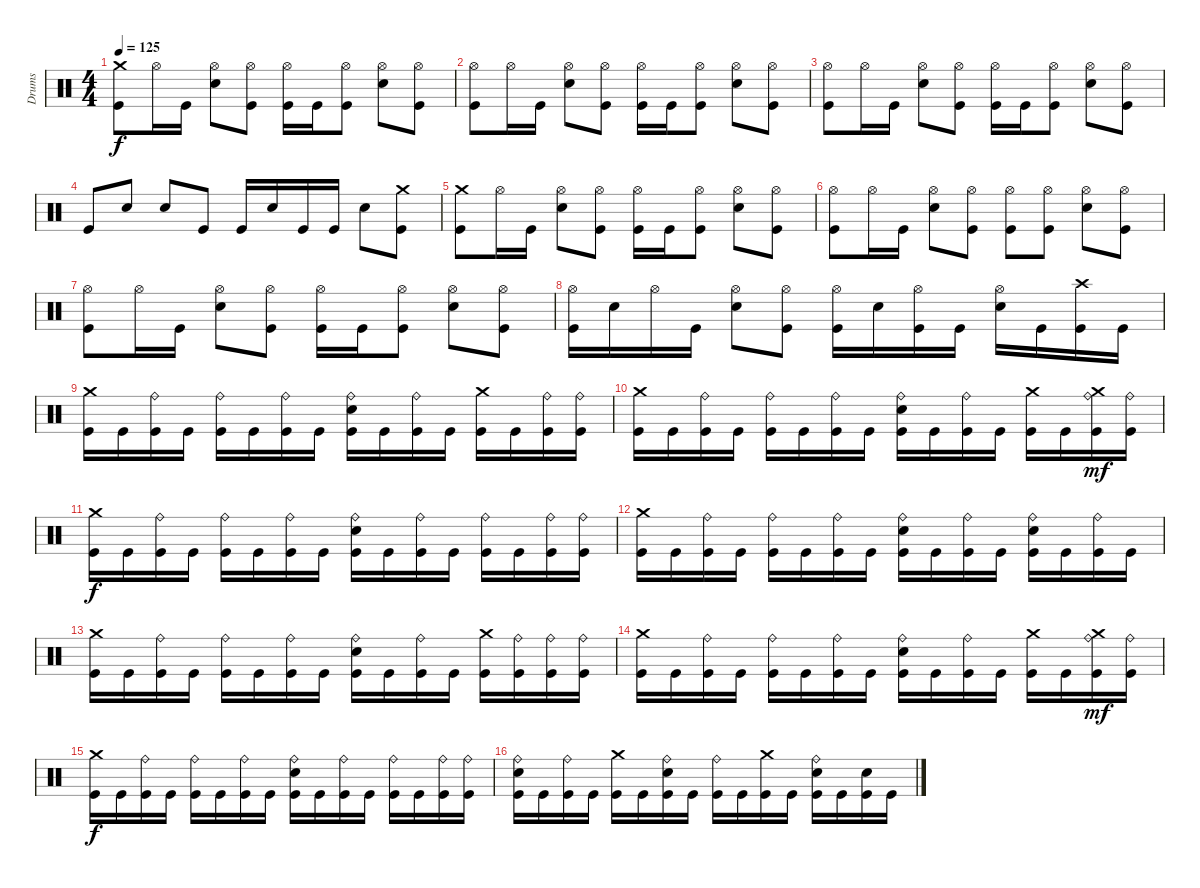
\track ("Drums" "Drums") {instrument percussion}
\staff {score}
\articulation defaults
\ts (4 4)
\tempo 125
\clef neutral
\ks c
("Kick (hit)" "Crash medium (hit)").8{dy f} "Hi-Hat (open)".16 "Kick (hit)".16 ("Electric Snare (hit)" "Hi-Hat (open)").8 ("Kick (hit)" "Hi-Hat (open)").8 ("Kick (hit)" "Hi-Hat (open)").16 "Kick (hit)".16 ("Kick (hit)" "Hi-Hat (open)").8 ("Electric Snare (hit)" "Hi-Hat (open)").8 ("Kick (hit)" "Hi-Hat (open)").8 |
("Kick (hit)" "Hi-Hat (open)").8 "Hi-Hat (open)".16 "Kick (hit)".16 ("Electric Snare (hit)" "Hi-Hat (open)").8 ("Kick (hit)" "Hi-Hat (open)").8 ("Kick (hit)" "Hi-Hat (open)").16 "Kick (hit)".16 ("Kick (hit)" "Hi-Hat (open)").8 ("Electric Snare (hit)" "Hi-Hat (open)").8 ("Kick (hit)" "Hi-Hat (open)").8 |
("Kick (hit)" "Hi-Hat (open)").8 "Hi-Hat (open)".16 "Kick (hit)".16 ("Electric Snare (hit)" "Hi-Hat (open)").8 ("Kick (hit)" "Hi-Hat (open)").8 ("Kick (hit)" "Hi-Hat (open)").16 "Kick (hit)".16 ("Kick (hit)" "Hi-Hat (open)").8 ("Electric Snare (hit)" "Hi-Hat (open)").8 ("Kick (hit)" "Hi-Hat (open)").8 |
"Kick (hit)".8 "Electric Snare (hit)".8 "Electric Snare (hit)".8 "Kick (hit)".8 "Kick (hit)".16 "Electric Snare (hit)".16 "Kick (hit)".16 "Kick (hit)".16 "Electric Snare (hit)".8 ("Kick (hit)" "Crash medium (hit)").8 |
("Kick (hit)" "Crash medium (hit)").8 "Hi-Hat (open)".16 "Kick (hit)".16 ("Electric Snare (hit)" "Hi-Hat (open)").8 ("Kick (hit)" "Hi-Hat (open)").8 ("Kick (hit)" "Hi-Hat (open)").16 "Kick (hit)".16 ("Kick (hit)" "Hi-Hat (open)").8 ("Electric Snare (hit)" "Hi-Hat (open)").8 ("Kick (hit)" "Hi-Hat (open)").8 |
("Kick (hit)" "Hi-Hat (open)").8 "Hi-Hat (open)".16 "Kick (hit)".16 ("Electric Snare (hit)" "Hi-Hat (open)").8 ("Kick (hit)" "Hi-Hat (open)").8 ("Kick (hit)" "Hi-Hat (open)").8 ("Kick (hit)" "Hi-Hat (open)").8 ("Electric Snare (hit)" "Hi-Hat (open)").8 ("Kick (hit)" "Hi-Hat (open)").8 |
("Kick (hit)" "Hi-Hat (open)").8 "Hi-Hat (open)".16 "Kick (hit)".16 ("Electric Snare (hit)" "Hi-Hat (open)").8 ("Kick (hit)" "Hi-Hat (open)").8 ("Kick (hit)" "Hi-Hat (open)").16 "Kick (hit)".16 ("Kick (hit)" "Hi-Hat (open)").8 ("Electric Snare (hit)" "Hi-Hat (open)").8 ("Kick (hit)" "Hi-Hat (open)").8 |
("Kick (hit)" "Hi-Hat (open)").16 "Electric Snare (hit)".16 "Hi-Hat (open)".16 "Kick (hit)".16 ("Electric Snare (hit)" "Hi-Hat (open)").8 ("Kick (hit)" "Hi-Hat (open)").8 ("Kick (hit)" "Hi-Hat (open)").16 "Electric Snare (hit)".16 ("Kick (hit)" "Hi-Hat (open)").16 "Kick (hit)".16 ("Electric Snare (hit)" "Hi-Hat (open)").16 "Kick (hit)".16 ("Kick (hit)" "Crash high (hit)").16 "Kick (hit)".16 |
("Kick (hit)" "Crash medium (hit)").16 "Kick (hit)".16 ("Kick (hit)" "Ride (bell)").16 "Kick (hit)".16 ("Kick (hit)" "Ride (bell)").16 "Kick (hit)".16 ("Kick (hit)" "Ride (bell)").16 "Kick (hit)".16 ("Kick (hit)" "Electric Snare (hit)" "Ride (bell)").16 "Kick (hit)".16 ("Kick (hit)" "Ride (bell)").16 "Kick (hit)".16 ("Kick (hit)" "Crash medium (hit)").16 "Kick (hit)".16 ("Kick (hit)" "Ride (bell)").16 ("Kick (hit)" "Ride (bell)").16 |
("Kick (hit)" "Crash medium (hit)").16 "Kick (hit)".16 ("Kick (hit)" "Ride (bell)").16 "Kick (hit)".16 ("Kick (hit)" "Ride (bell)").16 "Kick (hit)".16 ("Kick (hit)" "Ride (bell)").16 "Kick (hit)".16 ("Kick (hit)" "Electric Snare (hit)" "Ride (bell)").16 "Kick (hit)".16 ("Kick (hit)" "Ride (bell)").16 "Kick (hit)".16 ("Kick (hit)" "Crash medium (hit)").16 "Kick (hit)".16 ("Kick (hit)" "Ride (bell)" "Crash medium (hit)").16{dy mf} ("Kick (hit)" "Ride (bell)").16 |
("Kick (hit)" "Crash medium (hit)").16{dy f} "Kick (hit)".16 ("Kick (hit)" "Ride (bell)").16 "Kick (hit)".16 ("Kick (hit)" "Ride (bell)").16 "Kick (hit)".16 ("Kick (hit)" "Ride (bell)").16 "Kick (hit)".16 ("Kick (hit)" "Electric Snare (hit)" "Ride (bell)").16 "Kick (hit)".16 ("Kick (hit)" "Ride (bell)").16 "Kick (hit)".16 ("Kick (hit)" "Ride (bell)").16 "Kick (hit)".16 ("Kick (hit)" "Ride (bell)").16 ("Kick (hit)" "Ride (bell)").16 |
("Kick (hit)" "Crash medium (hit)").16 "Kick (hit)".16 ("Kick (hit)" "Ride (bell)").16 "Kick (hit)".16 ("Kick (hit)" "Ride (bell)").16 "Kick (hit)".16 ("Kick (hit)" "Ride (bell)").16 "Kick (hit)".16 ("Kick (hit)" "Electric Snare (hit)" "Ride (bell)").16 "Kick (hit)".16 ("Kick (hit)" "Ride (bell)").16 "Kick (hit)".16 ("Kick (hit)" "Electric Snare (hit)" "Ride (bell)").16 "Kick (hit)".16 ("Kick (hit)" "Ride (bell)").16 "Kick (hit)".16 |
("Kick (hit)" "Crash medium (hit)").16 "Kick (hit)".16 ("Kick (hit)" "Ride (bell)").16 "Kick (hit)".16 ("Kick (hit)" "Ride (bell)").16 "Kick (hit)".16 ("Kick (hit)" "Ride (bell)").16 "Kick (hit)".16 ("Kick (hit)" "Electric Snare (hit)" "Ride (bell)").16 "Kick (hit)".16 ("Kick (hit)" "Ride (bell)").16 "Kick (hit)".16 ("Kick (hit)" "Crash medium (hit)").16 ("Kick (hit)" "Ride (bell)").16 ("Kick (hit)" "Ride (bell)").16 ("Kick (hit)" "Ride (bell)").16 |
("Kick (hit)" "Crash medium (hit)").16 "Kick (hit)".16 ("Kick (hit)" "Ride (bell)").16 "Kick (hit)".16 ("Kick (hit)" "Ride (bell)").16 "Kick (hit)".16 ("Kick (hit)" "Ride (bell)").16 "Kick (hit)".16 ("Kick (hit)" "Electric Snare (hit)" "Ride (bell)").16 "Kick (hit)".16 ("Kick (hit)" "Ride (bell)").16 "Kick (hit)".16 ("Kick (hit)" "Crash medium (hit)").16 "Kick (hit)".16 ("Kick (hit)" "Ride (bell)" "Crash medium (hit)").16{dy mf} ("Kick (hit)" "Ride (bell)").16 |
("Kick (hit)" "Crash medium (hit)").16{dy f} "Kick (hit)".16 ("Kick (hit)" "Ride (bell)").16 "Kick (hit)".16 ("Kick (hit)" "Ride (bell)").16 "Kick (hit)".16 ("Kick (hit)" "Ride (bell)").16 "Kick (hit)".16 ("Kick (hit)" "Electric Snare (hit)" "Ride (bell)").16 "Kick (hit)".16 ("Kick (hit)" "Ride (bell)").16 "Kick (hit)".16 ("Kick (hit)" "Ride (bell)").16 "Kick (hit)".16 ("Kick (hit)" "Ride (bell)").16 ("Kick (hit)" "Ride (bell)").16 |
("Kick (hit)" "Electric Snare (hit)" "Ride (bell)").16 "Kick (hit)".16 ("Kick (hit)" "Ride (bell)").16 "Kick (hit)".16 ("Kick (hit)" "Crash medium (hit)").16 "Kick (hit)".16 ("Kick (hit)" "Electric Snare (hit)" "Ride (bell)").16 "Kick (hit)".16 ("Kick (hit)" "Ride (bell)").16 "Kick (hit)".16 ("Kick (hit)" "Crash medium (hit)").16 "Kick (hit)".16 ("Kick (hit)" "Electric Snare (hit)" "Ride (bell)").16 "Kick (hit)".16 ("Kick (hit)" "Electric Snare (hit)").16 "Kick (hit)".16
